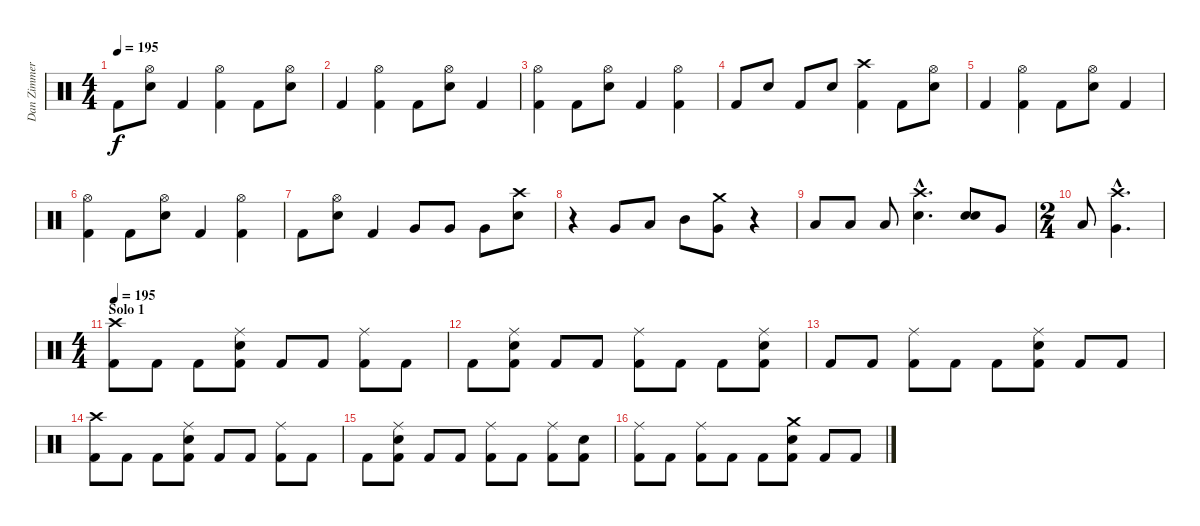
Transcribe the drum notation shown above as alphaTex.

\track ("Dan Zimmermann" "Dan Zimmer") {instrument percussion}
\staff {score}
\articulation defaults
\ts (4 4)
\tempo 195
\clef neutral
\ks c "Kick (hit) 2".8{dy f}
("Hi-Hat (open)" "Electric Snare (hit)").8 "Kick (hit) 2".4 ("Hi-Hat (open)" "Kick (hit) 2").4 "Kick (hit) 2".8 ("Hi-Hat (open)" "Electric Snare (hit)").8 |
"Kick (hit) 2".4 ("Hi-Hat (open)" "Kick (hit) 2").4 "Kick (hit) 2".8 ("Hi-Hat (open)" "Electric Snare (hit)").8 "Kick (hit) 2".4 |
("Hi-Hat (open)" "Kick (hit) 2").4 "Kick (hit) 2".8 ("Hi-Hat (open)" "Electric Snare (hit)").8 "Kick (hit) 2".4 ("Hi-Hat (open)" "Kick (hit) 2").4 |
"Kick (hit) 2".8 "Electric Snare (hit)".8 "Kick (hit) 2".8 "Electric Snare (hit)".8 ("Crash high (hit)" "Kick (hit) 2").4 "Kick (hit) 2".8 ("Hi-Hat (open)" "Electric Snare (hit)").8 |
"Kick (hit) 2".4 ("Hi-Hat (open)" "Kick (hit) 2").4 "Kick (hit) 2".8 ("Hi-Hat (open)" "Electric Snare (hit)").8 "Kick (hit) 2".4 |
("Hi-Hat (open)" "Kick (hit) 2").4 "Kick (hit) 2".8 ("Hi-Hat (open)" "Electric Snare (hit)").8 "Kick (hit) 2".4 ("Hi-Hat (open)" "Kick (hit) 2").4 |
"Kick (hit) 2".8 ("Hi-Hat (open)" "Electric Snare (hit)").8 "Kick (hit) 2".4 "Very Low Tom (hit)".8 "Very Low Tom (hit)".8 "Very Low Tom (hit)".8 ("Crash high (hit)" "Electric Snare (hit)").8 |
r.4 "Very Low Tom (hit)".8 "Low Tom (hit)".8 "Mid Tom (hit)".8 ("Crash medium (hit)" "Very Low Tom (hit)").8 r.4 |
"Low Tom (hit)".8 "Low Tom (hit)".8 "Low Tom (hit)".8 ("Crash high (hit)"{hac} "Electric Snare (hit)"{hac}).4{d} ("Electric Snare (hit)" "Electric Snare (hit)").8{bd 240} "Very Low Tom (hit)".8 |
\ts (2 4)
"Low Tom (hit)".8 ("Crash high (hit)"{hac} "Very Low Tom (hit)"{hac}).4{d} |
\ts (4 4)
\section ("" "Solo 1")
\tempo 195
("Crash high (hit)" "Kick (hit) 2").8 "Kick (hit) 2".8 "Kick (hit) 2".8 ("Ride (middle)" "Electric Snare (hit)" "Kick (hit) 2").8 "Kick (hit) 2".8 "Kick (hit) 2".8 ("Ride (middle)" "Kick (hit) 2").8 "Kick (hit) 2".8 |
"Kick (hit) 2".8 ("Ride (middle)" "Electric Snare (hit)" "Kick (hit) 2").8 "Kick (hit) 2".8 "Kick (hit) 2".8 ("Ride (middle)" "Kick (hit) 2").8 "Kick (hit) 2".8 "Kick (hit) 2".8 ("Ride (middle)" "Electric Snare (hit)" "Kick (hit) 2").8 |
"Kick (hit) 2".8 "Kick (hit) 2".8 ("Ride (middle)" "Kick (hit) 2").8 "Kick (hit) 2".8 "Kick (hit) 2".8 ("Ride (middle)" "Electric Snare (hit)" "Kick (hit) 2").8 "Kick (hit) 2".8 "Kick (hit) 2".8 |
("Crash high (hit)" "Kick (hit) 2").8 "Kick (hit) 2".8 "Kick (hit) 2".8 ("Ride (middle)" "Electric Snare (hit)" "Kick (hit) 2").8 "Kick (hit) 2".8 "Kick (hit) 2".8 ("Ride (middle)" "Kick (hit) 2").8 "Kick (hit) 2".8 |
"Kick (hit) 2".8 ("Ride (middle)" "Electric Snare (hit)" "Kick (hit) 2").8 "Kick (hit) 2".8 "Kick (hit) 2".8 ("Ride (middle)" "Kick (hit) 2").8 "Kick (hit) 2".8 ("Ride (middle)" "Kick (hit) 2").8 ("Electric Snare (hit)" "Kick (hit) 2").8 |
("Ride (middle)" "Kick (hit) 2").8 "Kick (hit) 2".8 ("Ride (middle)" "Kick (hit) 2").8 "Kick (hit) 2".8 "Kick (hit) 2".8 ("Crash medium (hit)" "Electric Snare (hit)" "Kick (hit) 2").8 "Kick (hit) 2".8 "Kick (hit) 2".8
